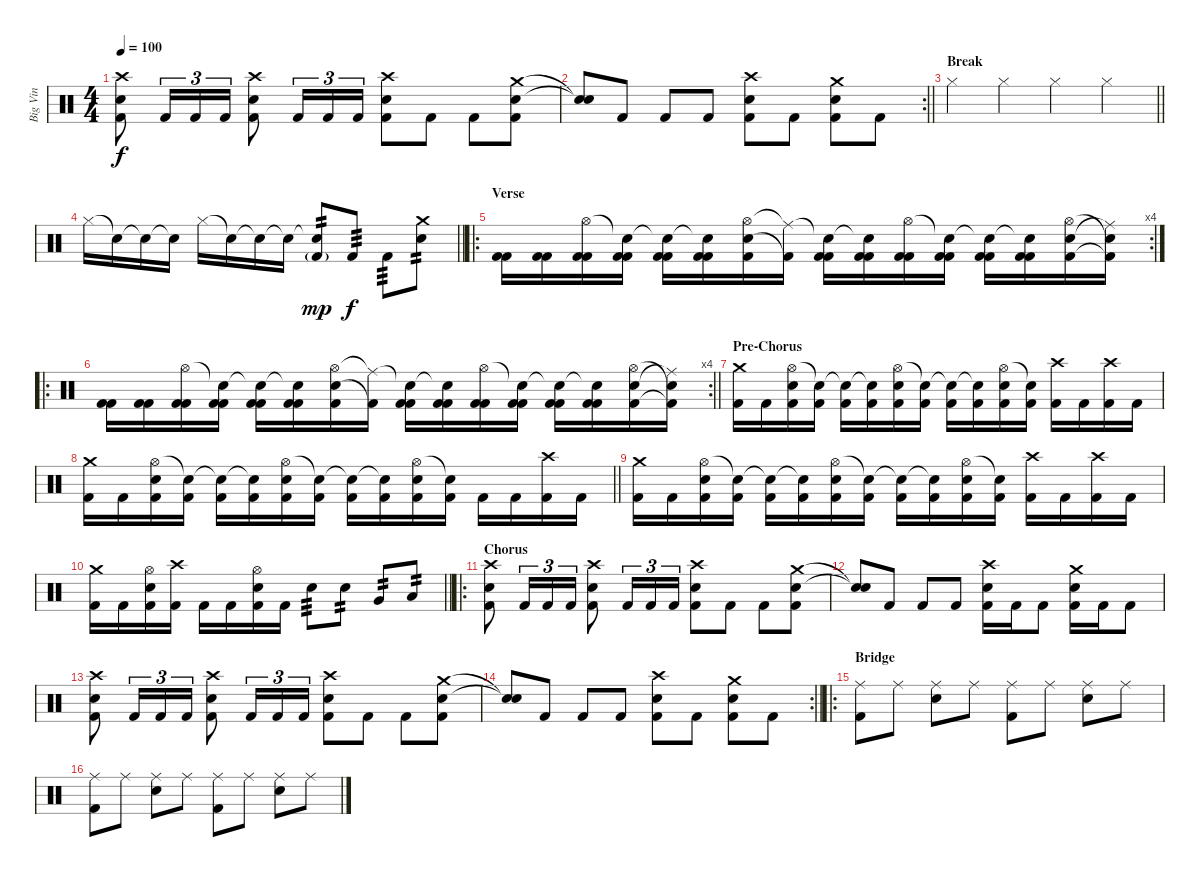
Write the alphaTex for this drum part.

\track ("Big Vin" "Big Vin") {instrument percussion}
\staff {score}
\articulation defaults
\ts (4 4)
\tempo 100
\clef neutral
\ks c
("Crash high (hit)" "Electric Snare (hit)" "Kick (hit) 2").8{dy f} "Kick (hit) 2".16{tu (3 2)} "Kick (hit) 2".16{tu (3 2)} "Kick (hit) 2".16{tu (3 2)} ("Crash high (hit)" "Electric Snare (hit)" "Kick (hit) 2").8 "Kick (hit) 2".16{tu (3 2)} "Kick (hit) 2".16{tu (3 2)} "Kick (hit) 2".16{tu (3 2)} ("Crash high (hit)" "Electric Snare (hit)" "Kick (hit) 2").8 "Kick (hit) 2".8 "Kick (hit) 2".8 ("Crash medium (hit)" "Electric Snare (hit)" "Kick (hit) 2").8 |
\rc 2
\barLineRight lightlight
("Snare (hit)"{t} "Snare (hit)"{t}).8 "Kick (hit) 2".8 "Kick (hit) 2".8 "Kick (hit) 2".8 ("Crash high (hit)" "Electric Snare (hit)" "Kick (hit) 2").8 "Kick (hit) 2".8 ("Crash medium (hit)" "Electric Snare (hit)" "Kick (hit) 2").8 "Kick (hit) 2".8 |
\section ("" "Break")
\barLineRight lightlight "Hi-Hat (closed)".4 "Hi-Hat (closed)".4 "Hi-Hat (closed)".4 "Hi-Hat (closed)".4
|
\barLineRight lightlight "Hi-Hat (closed)".16 "Snare (hit)"{t}.16 "Snare (hit)"{t}.16 "Snare (hit)"{t}.16 "Hi-Hat (closed)".16 "Snare (hit)"{t}.16 "Snare (hit)"{t}.16 "Snare (hit)"{t}.16
("Electric Snare (hit)"{t} "Kick (hit) 2"{g}).8{tp 2 dy mp} "Kick (hit) 2".8{tp 3 dy f} "Kick (hit) 2".8{tp 3} ("Crash medium (hit)" "Electric Snare (hit)").8{tp 2} |
\ro
\rc 4
\section ("" "Verse")
("Kick (hit) 2" "Kick (hit) 2").16 ("Kick (hit) 2" "Kick (hit) 2").16 ("Hi-Hat (open)" "Kick (hit) 2" "Kick (hit) 2").16 ("Snare (hit)"{t} "Kick (hit) 2" "Kick (hit) 2").16 ("Snare (hit)"{t} "Kick (hit) 2" "Kick (hit) 2").16 ("Snare (hit)"{t} "Kick (hit) 2" "Kick (hit) 2").16 ("Hi-Hat (open)" "Electric Snare (hit)" "Kick (hit) 2").16 ("Ride (middle)"{t} "Kick (hit) 2"{t}).16 ("Snare (hit)"{t} "Kick (hit) 2" "Kick (hit) 2").16 ("Snare (hit)"{t} "Kick (hit) 2" "Kick (hit) 2").16 ("Hi-Hat (open)" "Kick (hit) 2" "Kick (hit) 2").16 ("Snare (hit)"{t} "Kick (hit) 2" "Kick (hit) 2").16 ("Snare (hit)"{t} "Kick (hit) 2" "Kick (hit) 2").16 ("Snare (hit)"{t} "Kick (hit) 2" "Kick (hit) 2").16 ("Hi-Hat (open)" "Electric Snare (hit)" "Kick (hit) 2").16 ("Snare (hit)"{t} "Ride (middle)"{t} "Kick (hit) 2"{t}).16 |
\ro
\rc 4
\barLineRight lightlight
("Kick (hit) 2" "Kick (hit) 2").16 ("Kick (hit) 2" "Kick (hit) 2").16 ("Hi-Hat (open)" "Kick (hit) 2" "Kick (hit) 2").16 ("Snare (hit)"{t} "Kick (hit) 2" "Kick (hit) 2").16 ("Snare (hit)"{t} "Kick (hit) 2" "Kick (hit) 2").16 ("Snare (hit)"{t} "Kick (hit) 2" "Kick (hit) 2").16 ("Hi-Hat (open)" "Electric Snare (hit)" "Kick (hit) 2").16 ("Ride (middle)"{t} "Kick (hit) 2"{t}).16 ("Snare (hit)"{t} "Kick (hit) 2" "Kick (hit) 2").16 ("Snare (hit)"{t} "Kick (hit) 2" "Kick (hit) 2").16 ("Hi-Hat (open)" "Kick (hit) 2" "Kick (hit) 2").16 ("Snare (hit)"{t} "Kick (hit) 2" "Kick (hit) 2").16 ("Snare (hit)"{t} "Kick (hit) 2" "Kick (hit) 2").16 ("Snare (hit)"{t} "Kick (hit) 2" "Kick (hit) 2").16 ("Hi-Hat (open)" "Electric Snare (hit)" "Kick (hit) 2").16 ("Snare (hit)"{t} "Ride (middle)"{t} "Kick (hit) 2"{t}).16 |
\section ("" "Pre-Chorus")
("Crash medium (hit)" "Kick (hit) 2").16 "Kick (hit) 2".16 ("Hi-Hat (open)" "Electric Snare (hit)" "Kick (hit) 2").16 ("Snare (hit)"{t} "Kick (hit) 2").16 ("Snare (hit)"{t} "Kick (hit) 2").16 ("Snare (hit)"{t} "Kick (hit) 2").16 ("Hi-Hat (open)" "Electric Snare (hit)" "Kick (hit) 2").16 ("Snare (hit)"{t} "Kick (hit) 2").16 ("Snare (hit)"{t} "Kick (hit) 2").16 ("Snare (hit)"{t} "Kick (hit) 2").16 ("Hi-Hat (open)" "Electric Snare (hit)" "Kick (hit) 2").16 ("Snare (hit)"{t} "Kick (hit) 2").16 ("Crash high (hit)" "Kick (hit) 2").16 "Kick (hit) 2".16 ("Crash high (hit)" "Kick (hit) 2").16 "Kick (hit) 2".16 |
\barLineRight lightlight
("Crash medium (hit)" "Kick (hit) 2").16 "Kick (hit) 2".16 ("Hi-Hat (open)" "Electric Snare (hit)" "Kick (hit) 2").16 ("Snare (hit)"{t} "Kick (hit) 2").16 ("Snare (hit)"{t} "Kick (hit) 2").16 ("Snare (hit)"{t} "Kick (hit) 2").16 ("Hi-Hat (open)" "Electric Snare (hit)" "Kick (hit) 2").16 ("Snare (hit)"{t} "Kick (hit) 2").16 ("Snare (hit)"{t} "Kick (hit) 2").16 ("Snare (hit)"{t} "Kick (hit) 2").16 ("Hi-Hat (open)" "Electric Snare (hit)" "Kick (hit) 2").16 ("Snare (hit)"{t} "Kick (hit) 2").16 "Kick (hit) 2".16 "Kick (hit) 2".16 ("Crash high (hit)" "Kick (hit) 2").16 "Kick (hit) 2".16 |
("Crash medium (hit)" "Kick (hit) 2").16 "Kick (hit) 2".16 ("Hi-Hat (open)" "Electric Snare (hit)" "Kick (hit) 2").16 ("Snare (hit)"{t} "Kick (hit) 2").16 ("Snare (hit)"{t} "Kick (hit) 2").16 ("Snare (hit)"{t} "Kick (hit) 2").16 ("Hi-Hat (open)" "Electric Snare (hit)" "Kick (hit) 2").16 ("Snare (hit)"{t} "Kick (hit) 2").16 ("Snare (hit)"{t} "Kick (hit) 2").16 ("Snare (hit)"{t} "Kick (hit) 2").16 ("Hi-Hat (open)" "Electric Snare (hit)" "Kick (hit) 2").16 ("Snare (hit)"{t} "Kick (hit) 2").16 ("Crash high (hit)" "Kick (hit) 2").16 "Kick (hit) 2".16 ("Crash high (hit)" "Kick (hit) 2").16 "Kick (hit) 2".16 |
\barLineRight lightlight
("Crash medium (hit)" "Kick (hit) 2").16 "Kick (hit) 2".16 ("Hi-Hat (open)" "Electric Snare (hit)" "Kick (hit) 2").16 ("Crash high (hit)" "Kick (hit) 2").16 "Kick (hit) 2".16 "Kick (hit) 2".16 ("Hi-Hat (open)" "Electric Snare (hit)" "Kick (hit) 2").16 "Kick (hit) 2".16 "Electric Snare (hit)".8{tp 3} "Electric Snare (hit)".8{tp 2} "Very Low Tom (hit)".8{tp 2} "Low Floor Tom (hit)".8{tp 2} |
\ro
\section ("" "Chorus")
("Crash high (hit)" "Electric Snare (hit)" "Kick (hit) 2").8 "Kick (hit) 2".16{tu (3 2)} "Kick (hit) 2".16{tu (3 2)} "Kick (hit) 2".16{tu (3 2)} ("Crash high (hit)" "Electric Snare (hit)" "Kick (hit) 2").8 "Kick (hit) 2".16{tu (3 2)} "Kick (hit) 2".16{tu (3 2)} "Kick (hit) 2".16{tu (3 2)} ("Crash high (hit)" "Electric Snare (hit)" "Kick (hit) 2").8 "Kick (hit) 2".8 "Kick (hit) 2".8 ("Crash medium (hit)" "Electric Snare (hit)" "Kick (hit) 2").8 |
("Snare (hit)"{t} "Snare (hit)"{t}).8 "Kick (hit) 2".8 "Kick (hit) 2".8 "Kick (hit) 2".8 ("Crash high (hit)" "Electric Snare (hit)" "Kick (hit) 2").16 "Kick (hit) 2".16 "Kick (hit) 2".8 ("Crash medium (hit)" "Electric Snare (hit)" "Kick (hit) 2").16 "Kick (hit) 2".16 "Kick (hit) 2".8 |
("Crash high (hit)" "Electric Snare (hit)" "Kick (hit) 2").8 "Kick (hit) 2".16{tu (3 2)} "Kick (hit) 2".16{tu (3 2)} "Kick (hit) 2".16{tu (3 2)} ("Crash high (hit)" "Electric Snare (hit)" "Kick (hit) 2").8 "Kick (hit) 2".16{tu (3 2)} "Kick (hit) 2".16{tu (3 2)} "Kick (hit) 2".16{tu (3 2)} ("Crash high (hit)" "Electric Snare (hit)" "Kick (hit) 2").8 "Kick (hit) 2".8 "Kick (hit) 2".8 ("Crash medium (hit)" "Electric Snare (hit)" "Kick (hit) 2").8 |
\rc 2
\barLineRight lightlight
("Snare (hit)"{t} "Snare (hit)"{t}).8 "Kick (hit) 2".8 "Kick (hit) 2".8 "Kick (hit) 2".8 ("Crash high (hit)" "Electric Snare (hit)" "Kick (hit) 2").8 "Kick (hit) 2".8 ("Crash medium (hit)" "Electric Snare (hit)" "Kick (hit) 2").8 "Kick (hit) 2".8 |
\ro
\section ("" "Bridge")
("Ride (middle)" "Kick (hit) 2").8 "Ride (middle)".8 ("Ride (middle)" "Electric Snare (hit)").8 "Ride (middle)".8 ("Ride (middle)" "Kick (hit) 2").8 "Ride (middle)".8 ("Ride (middle)" "Electric Snare (hit)").8 "Ride (middle)".8 |
("Ride (middle)" "Kick (hit) 2").8 "Ride (middle)".8 ("Ride (middle)" "Electric Snare (hit)").8 "Ride (middle)".8 ("Ride (middle)" "Kick (hit) 2").8 "Ride (middle)".8 ("Ride (middle)" "Electric Snare (hit)").8 "Ride (middle)".8
